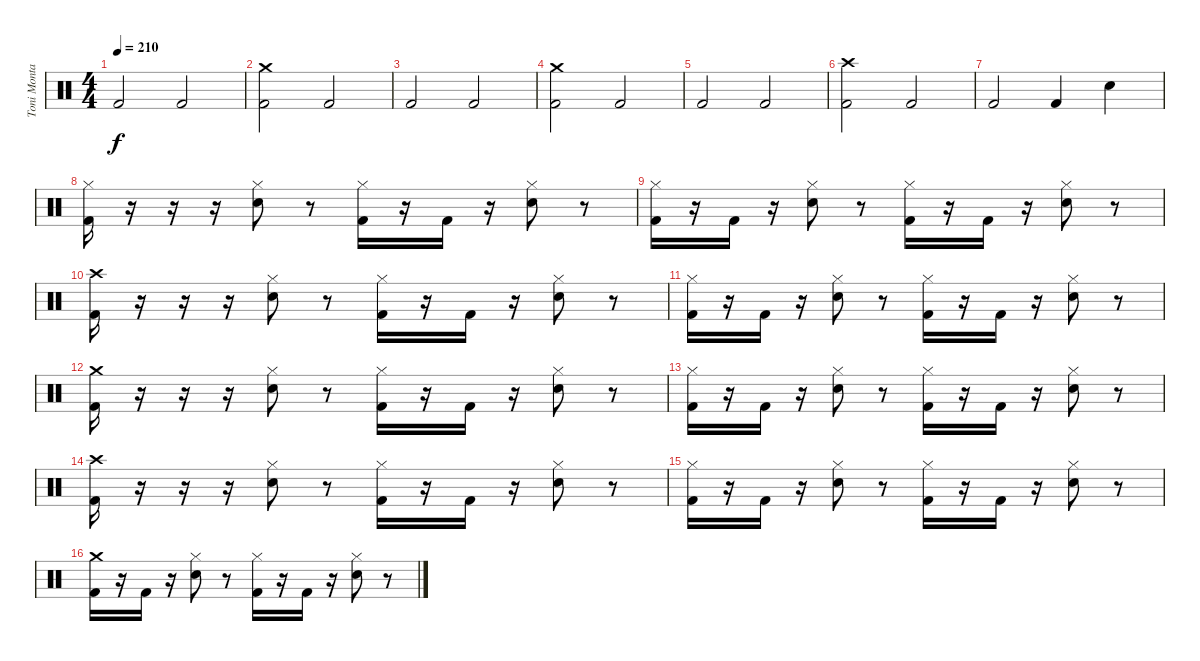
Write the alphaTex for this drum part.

\track ("Toni Montalvo" "Toni Monta") {solo instrument percussion}
\staff {score}
\articulation defaults
\ts (4 4)
\tempo 210
\clef neutral
\ks c "Kick (hit) 2".2{dy f} "Kick (hit) 2".2
|
("Kick (hit) 2" "Crash medium (hit)").2 "Kick (hit) 2".2 |
"Kick (hit) 2".2 "Kick (hit) 2".2 |
("Kick (hit) 2" "Crash medium (hit)").2 "Kick (hit) 2".2 |
"Kick (hit) 2".2 "Kick (hit) 2".2 |
("Kick (hit) 2" "Crash high (hit)").2 "Kick (hit) 2".2 |
"Kick (hit) 2".2 "Kick (hit) 2".4 "Electric Snare (hit)".4 |
("Kick (hit) 2" "Hi-Hat (closed)").16 r.16 r.16 r.16 ("Electric Snare (hit)" "Hi-Hat (closed)").8 r.8 ("Kick (hit) 2" "Hi-Hat (closed)").16 r.16 "Kick (hit) 2".16 r.16 ("Electric Snare (hit)" "Hi-Hat (closed)").8 r.8 |
("Kick (hit) 2" "Hi-Hat (closed)").16 r.16 "Kick (hit) 2".16 r.16 ("Electric Snare (hit)" "Hi-Hat (closed)").8 r.8 ("Kick (hit) 2" "Hi-Hat (closed)").16 r.16 "Kick (hit) 2".16 r.16 ("Electric Snare (hit)" "Hi-Hat (closed)").8 r.8 |
("Kick (hit) 2" "Crash high (hit)").16 r.16 r.16 r.16 ("Electric Snare (hit)" "Hi-Hat (closed)").8 r.8 ("Kick (hit) 2" "Hi-Hat (closed)").16 r.16 "Kick (hit) 2".16 r.16 ("Electric Snare (hit)" "Hi-Hat (closed)").8 r.8 |
("Kick (hit) 2" "Hi-Hat (closed)").16 r.16 "Kick (hit) 2".16 r.16 ("Electric Snare (hit)" "Hi-Hat (closed)").8 r.8 ("Kick (hit) 2" "Hi-Hat (closed)").16 r.16 "Kick (hit) 2".16 r.16 ("Electric Snare (hit)" "Hi-Hat (closed)").8 r.8 |
("Kick (hit) 2" "Crash medium (hit)").16 r.16 r.16 r.16 ("Electric Snare (hit)" "Hi-Hat (closed)").8 r.8 ("Kick (hit) 2" "Hi-Hat (closed)").16 r.16 "Kick (hit) 2".16 r.16 ("Electric Snare (hit)" "Hi-Hat (closed)").8 r.8 |
("Kick (hit) 2" "Hi-Hat (closed)").16 r.16 "Kick (hit) 2".16 r.16 ("Electric Snare (hit)" "Hi-Hat (closed)").8 r.8 ("Kick (hit) 2" "Hi-Hat (closed)").16 r.16 "Kick (hit) 2".16 r.16 ("Electric Snare (hit)" "Hi-Hat (closed)").8 r.8 |
("Kick (hit) 2" "Crash high (hit)").16 r.16 r.16 r.16 ("Electric Snare (hit)" "Hi-Hat (closed)").8 r.8 ("Kick (hit) 2" "Hi-Hat (closed)").16 r.16 "Kick (hit) 2".16 r.16 ("Electric Snare (hit)" "Hi-Hat (closed)").8 r.8 |
("Kick (hit) 2" "Hi-Hat (closed)").16 r.16 "Kick (hit) 2".16 r.16 ("Electric Snare (hit)" "Hi-Hat (closed)").8 r.8 ("Kick (hit) 2" "Hi-Hat (closed)").16 r.16 "Kick (hit) 2".16 r.16 ("Electric Snare (hit)" "Hi-Hat (closed)").8 r.8 |
("Kick (hit) 2" "Crash medium (hit)").16 r.16 "Kick (hit) 2".16 r.16 ("Electric Snare (hit)" "Hi-Hat (closed)").8 r.8 ("Kick (hit) 2" "Hi-Hat (closed)").16 r.16 "Kick (hit) 2".16 r.16 ("Electric Snare (hit)" "Hi-Hat (closed)").8 r.8
